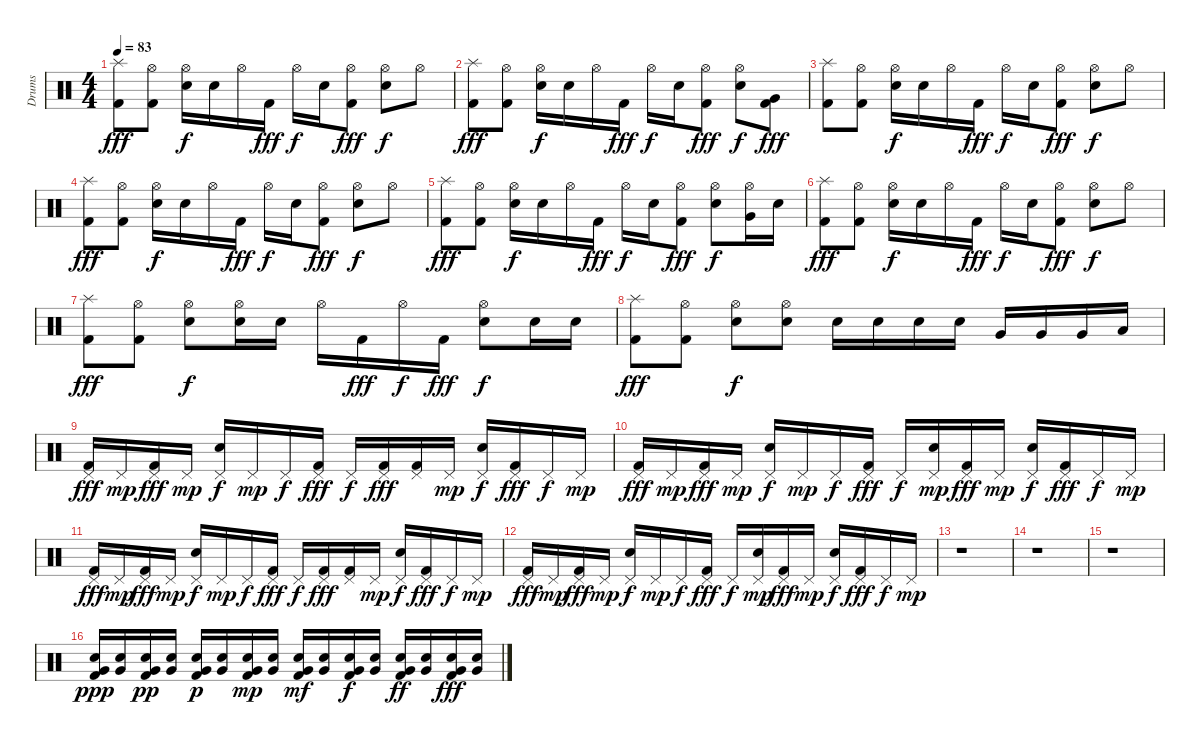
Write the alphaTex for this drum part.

\track ("Drums" "Drums") {instrument percussion}
\staff {score}
\articulation defaults
\ts (4 4)
\tempo 83
\clef neutral
\ks c
("Splash (hit)" "Kick (hit) 2").8{dy fff} ("Hi-Hat (open)" "Kick (hit) 2").8 ("Hi-Hat (open)" "Snare (hit) 2").16{dy f} "Snare (hit) 2".16 "Hi-Hat (open)".16 "Kick (hit) 2".16{dy fff} "Hi-Hat (open)".16{dy f} "Snare (hit) 2".16 ("Hi-Hat (open)" "Kick (hit) 2").8{dy fff} ("Hi-Hat (open)" "Snare (hit) 2").8{dy f} "Hi-Hat (open)".8 |
("Splash (hit)" "Kick (hit) 2").8{dy fff} ("Hi-Hat (open)" "Kick (hit) 2").8 ("Hi-Hat (open)" "Snare (hit) 2").16{dy f} "Snare (hit) 2".16 "Hi-Hat (open)".16 "Kick (hit) 2".16{dy fff} "Hi-Hat (open)".16{dy f} "Snare (hit) 2".16 ("Hi-Hat (open)" "Kick (hit) 2").8{dy fff} ("Hi-Hat (open)" "Snare (hit) 2").8{dy f} ("Very Low Tom (hit)" "Kick (hit) 2").8{dy fff} |
("Splash (hit)" "Kick (hit) 2").8 ("Hi-Hat (open)" "Kick (hit) 2").8 ("Hi-Hat (open)" "Snare (hit) 2").16{dy f} "Snare (hit) 2".16 "Hi-Hat (open)".16 "Kick (hit) 2".16{dy fff} "Hi-Hat (open)".16{dy f} "Snare (hit) 2".16 ("Hi-Hat (open)" "Kick (hit) 2").8{dy fff} ("Hi-Hat (open)" "Snare (hit) 2").8{dy f} "Hi-Hat (open)".8 |
("Splash (hit)" "Kick (hit) 2").8{dy fff} ("Hi-Hat (open)" "Kick (hit) 2").8 ("Hi-Hat (open)" "Snare (hit) 2").16{dy f} "Snare (hit) 2".16 "Hi-Hat (open)".16 "Kick (hit) 2".16{dy fff} "Hi-Hat (open)".16{dy f} "Snare (hit) 2".16 ("Hi-Hat (open)" "Kick (hit) 2").8{dy fff} ("Hi-Hat (open)" "Snare (hit) 2").8{dy f} "Hi-Hat (open)".8 |
("Splash (hit)" "Kick (hit) 2").8{dy fff} ("Hi-Hat (open)" "Kick (hit) 2").8 ("Hi-Hat (open)" "Snare (hit) 2").16{dy f} "Snare (hit) 2".16 "Hi-Hat (open)".16 "Kick (hit) 2".16{dy fff} "Hi-Hat (open)".16{dy f} "Snare (hit) 2".16 ("Hi-Hat (open)" "Kick (hit) 2").8{dy fff} ("Hi-Hat (open)" "Snare (hit) 2").8{dy f} ("Hi-Hat (open)" "Very Low Tom (hit)").16 "Snare (hit) 2".16 |
("Splash (hit)" "Kick (hit) 2").8{dy fff} ("Hi-Hat (open)" "Kick (hit) 2").8 ("Hi-Hat (open)" "Snare (hit) 2").16{dy f} "Snare (hit) 2".16 "Hi-Hat (open)".16 "Kick (hit) 2".16{dy fff} "Hi-Hat (open)".16{dy f} "Snare (hit) 2".16 ("Hi-Hat (open)" "Kick (hit) 2").8{dy fff} ("Hi-Hat (open)" "Snare (hit) 2").8{dy f} "Hi-Hat (open)".8 |
("Splash (hit)" "Kick (hit) 2").8{dy fff} ("Hi-Hat (open)" "Kick (hit) 2").8 ("Hi-Hat (open)" "Snare (hit) 2").8{dy f} ("Hi-Hat (open)" "Snare (hit) 2").16 "Snare (hit) 2".16 "Hi-Hat (open)".16 "Kick (hit) 2".16{dy fff} "Hi-Hat (open)".16{dy f} "Kick (hit) 2".16{dy fff} ("Hi-Hat (open)" "Snare (hit) 2").8{dy f} "Snare (hit) 2".16 "Snare (hit) 2".16 |
("Splash (hit)" "Kick (hit) 2").8{dy fff} ("Hi-Hat (open)" "Kick (hit) 2").8 ("Hi-Hat (open)" "Snare (hit) 2").8{dy f} ("Hi-Hat (open)" "Snare (hit) 2").8 "Snare (hit) 2".16 "Snare (hit) 2".16 "Snare (hit) 2".16 "Snare (hit) 2".16 "Very Low Tom (hit)".16 "Very Low Tom (hit)".16 "Very Low Tom (hit)".16 "Low Floor Tom (hit)".16 |
("Pedal Hi-Hat (hit)" "Kick (hit) 2").16{dy fff} "Pedal Hi-Hat (hit)".16{dy mp} ("Pedal Hi-Hat (hit)" "Kick (hit) 2").16{dy fff} "Pedal Hi-Hat (hit)".16{dy mp} ("Pedal Hi-Hat (hit)" "Snare (hit) 2").16{dy f} "Pedal Hi-Hat (hit)".16{dy mp} "Pedal Hi-Hat (hit)".16{dy f} ("Pedal Hi-Hat (hit)" "Kick (hit) 2").16{dy fff} "Pedal Hi-Hat (hit)".16{dy f} ("Pedal Hi-Hat (hit)" "Kick (hit) 2").16{dy fff} ("Pedal Hi-Hat (hit)" "Kick (hit) 2").16 "Pedal Hi-Hat (hit)".16{dy mp} ("Pedal Hi-Hat (hit)" "Snare (hit) 2").16{dy f} ("Pedal Hi-Hat (hit)" "Kick (hit) 2").16{dy fff} "Pedal Hi-Hat (hit)".16{dy f} "Pedal Hi-Hat (hit)".16{dy mp} |
("Pedal Hi-Hat (hit)" "Kick (hit) 2").16{dy fff} "Pedal Hi-Hat (hit)".16{dy mp} ("Pedal Hi-Hat (hit)" "Kick (hit) 2").16{dy fff} "Pedal Hi-Hat (hit)".16{dy mp} ("Pedal Hi-Hat (hit)" "Snare (hit) 2").16{dy f} "Pedal Hi-Hat (hit)".16{dy mp} "Pedal Hi-Hat (hit)".16{dy f} ("Pedal Hi-Hat (hit)" "Kick (hit) 2").16{dy fff} "Pedal Hi-Hat (hit)".16{dy f} ("Pedal Hi-Hat (hit)" "Snare (hit) 2").16{dy mp} ("Pedal Hi-Hat (hit)" "Kick (hit) 2").16{dy fff} "Pedal Hi-Hat (hit)".16{dy mp} ("Pedal Hi-Hat (hit)" "Snare (hit) 2").16{dy f} ("Pedal Hi-Hat (hit)" "Kick (hit) 2").16{dy fff} "Pedal Hi-Hat (hit)".16{dy f} "Pedal Hi-Hat (hit)".16{dy mp} |
("Pedal Hi-Hat (hit)" "Kick (hit) 2").16{dy fff} "Pedal Hi-Hat (hit)".16{dy mp} ("Pedal Hi-Hat (hit)" "Kick (hit) 2").16{dy fff} "Pedal Hi-Hat (hit)".16{dy mp} ("Pedal Hi-Hat (hit)" "Snare (hit) 2").16{dy f} "Pedal Hi-Hat (hit)".16{dy mp} "Pedal Hi-Hat (hit)".16{dy f} ("Pedal Hi-Hat (hit)" "Kick (hit) 2").16{dy fff} "Pedal Hi-Hat (hit)".16{dy f} ("Pedal Hi-Hat (hit)" "Kick (hit) 2").16{dy fff} ("Pedal Hi-Hat (hit)" "Kick (hit) 2").16 "Pedal Hi-Hat (hit)".16{dy mp} ("Pedal Hi-Hat (hit)" "Snare (hit) 2").16{dy f} ("Pedal Hi-Hat (hit)" "Kick (hit) 2").16{dy fff} "Pedal Hi-Hat (hit)".16{dy f} "Pedal Hi-Hat (hit)".16{dy mp} |
("Pedal Hi-Hat (hit)" "Kick (hit) 2").16{dy fff} "Pedal Hi-Hat (hit)".16{dy mp} ("Pedal Hi-Hat (hit)" "Kick (hit) 2").16{dy fff} "Pedal Hi-Hat (hit)".16{dy mp} ("Pedal Hi-Hat (hit)" "Snare (hit) 2").16{dy f} "Pedal Hi-Hat (hit)".16{dy mp} "Pedal Hi-Hat (hit)".16{dy f} ("Pedal Hi-Hat (hit)" "Kick (hit) 2").16{dy fff} "Pedal Hi-Hat (hit)".16{dy f} ("Pedal Hi-Hat (hit)" "Snare (hit) 2").16{dy mp} ("Pedal Hi-Hat (hit)" "Kick (hit) 2").16{dy fff} "Pedal Hi-Hat (hit)".16{dy mp} ("Pedal Hi-Hat (hit)" "Snare (hit) 2").16{dy f} ("Pedal Hi-Hat (hit)" "Kick (hit) 2").16{dy fff} "Pedal Hi-Hat (hit)".16{dy f} "Pedal Hi-Hat (hit)".16{dy mp} |
r.1 |
r.1 |
r.1 |
("Snare (hit) 2" "Very Low Tom (hit)" "Kick (hit) 2").16{dy ppp} ("Snare (hit) 2" "Very Low Tom (hit)").16 ("Snare (hit) 2" "Very Low Tom (hit)" "Kick (hit) 2").16{dy pp} ("Snare (hit) 2" "Very Low Tom (hit)").16 ("Snare (hit) 2" "Very Low Tom (hit)" "Kick (hit) 2").16{dy p} ("Snare (hit) 2" "Very Low Tom (hit)").16 ("Snare (hit) 2" "Very Low Tom (hit)" "Kick (hit) 2").16{dy mp} ("Snare (hit) 2" "Very Low Tom (hit)").16 ("Snare (hit) 2" "Very Low Tom (hit)" "Kick (hit) 2").16{dy mf} ("Snare (hit) 2" "Very Low Tom (hit)").16 ("Snare (hit) 2" "Very Low Tom (hit)" "Kick (hit) 2").16{dy f} ("Snare (hit) 2" "Very Low Tom (hit)").16 ("Snare (hit) 2" "Very Low Tom (hit)" "Kick (hit) 2").16{dy ff} ("Snare (hit) 2" "Very Low Tom (hit)").16 ("Snare (hit) 2" "Very Low Tom (hit)" "Kick (hit) 2").16{dy fff} ("Snare (hit) 2" "Very Low Tom (hit)").16
